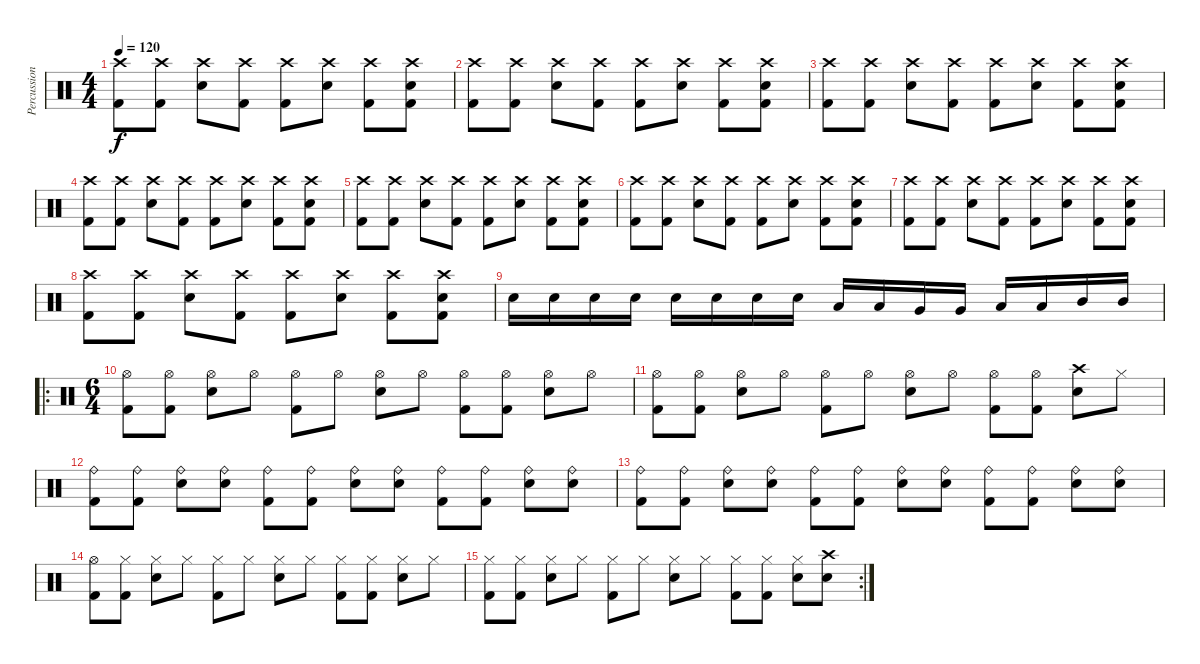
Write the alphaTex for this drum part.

\track ("Percussion" "Percussion") {instrument percussion}
\staff {score}
\articulation defaults
\ts (4 4)
\tempo 120
\clef neutral
\ks c
("Crash high (hit)" "Kick (hit) 2").8{dy f} ("Crash high (hit)" "Kick (hit) 2").8 ("Crash high (hit)" "Electric Snare (hit)").8 ("Crash high (hit)" "Kick (hit) 2").8 ("Crash high (hit)" "Kick (hit) 2").8 ("Crash high (hit)" "Electric Snare (hit)").8 ("Crash high (hit)" "Kick (hit) 2").8 ("Crash high (hit)" "Electric Snare (hit)" "Kick (hit) 2").8 |
("Crash high (hit)" "Kick (hit) 2").8 ("Crash high (hit)" "Kick (hit) 2").8 ("Crash high (hit)" "Electric Snare (hit)").8 ("Crash high (hit)" "Kick (hit) 2").8 ("Crash high (hit)" "Kick (hit) 2").8 ("Crash high (hit)" "Electric Snare (hit)").8 ("Crash high (hit)" "Kick (hit) 2").8 ("Crash high (hit)" "Electric Snare (hit)" "Kick (hit) 2").8 |
("Crash high (hit)" "Kick (hit) 2").8 ("Crash high (hit)" "Kick (hit) 2").8 ("Crash high (hit)" "Electric Snare (hit)").8 ("Crash high (hit)" "Kick (hit) 2").8 ("Crash high (hit)" "Kick (hit) 2").8 ("Crash high (hit)" "Electric Snare (hit)").8 ("Crash high (hit)" "Kick (hit) 2").8 ("Crash high (hit)" "Electric Snare (hit)" "Kick (hit) 2").8 |
("Crash high (hit)" "Kick (hit) 2").8 ("Crash high (hit)" "Kick (hit) 2").8 ("Crash high (hit)" "Electric Snare (hit)").8 ("Crash high (hit)" "Kick (hit) 2").8 ("Crash high (hit)" "Kick (hit) 2").8 ("Crash high (hit)" "Electric Snare (hit)").8 ("Crash high (hit)" "Kick (hit) 2").8 ("Crash high (hit)" "Electric Snare (hit)" "Kick (hit) 2").8 |
("Crash high (hit)" "Kick (hit) 2").8 ("Crash high (hit)" "Kick (hit) 2").8 ("Crash high (hit)" "Electric Snare (hit)").8 ("Crash high (hit)" "Kick (hit) 2").8 ("Crash high (hit)" "Kick (hit) 2").8 ("Crash high (hit)" "Electric Snare (hit)").8 ("Crash high (hit)" "Kick (hit) 2").8 ("Crash high (hit)" "Electric Snare (hit)" "Kick (hit) 2").8 |
("Crash high (hit)" "Kick (hit) 2").8 ("Crash high (hit)" "Kick (hit) 2").8 ("Crash high (hit)" "Electric Snare (hit)").8 ("Crash high (hit)" "Kick (hit) 2").8 ("Crash high (hit)" "Kick (hit) 2").8 ("Crash high (hit)" "Electric Snare (hit)").8 ("Crash high (hit)" "Kick (hit) 2").8 ("Crash high (hit)" "Electric Snare (hit)" "Kick (hit) 2").8 |
("Crash high (hit)" "Kick (hit) 2").8 ("Crash high (hit)" "Kick (hit) 2").8 ("Crash high (hit)" "Electric Snare (hit)").8 ("Crash high (hit)" "Kick (hit) 2").8 ("Crash high (hit)" "Kick (hit) 2").8 ("Crash high (hit)" "Electric Snare (hit)").8 ("Crash high (hit)" "Kick (hit) 2").8 ("Crash high (hit)" "Electric Snare (hit)" "Kick (hit) 2").8 |
("Crash high (hit)" "Kick (hit) 2").8 ("Crash high (hit)" "Kick (hit) 2").8 ("Crash high (hit)" "Electric Snare (hit)").8 ("Crash high (hit)" "Kick (hit) 2").8 ("Crash high (hit)" "Kick (hit) 2").8 ("Crash high (hit)" "Electric Snare (hit)").8 ("Crash high (hit)" "Kick (hit) 2").8 ("Crash high (hit)" "Electric Snare (hit)" "Kick (hit) 2").8 |
"Snare (hit) 2".16 "Electric Snare (hit)".16 "Snare (hit) 2".16 "Electric Snare (hit)".16 "Snare (hit) 2".16 "Electric Snare (hit)".16 "Snare (hit) 2".16 "Electric Snare (hit)".16 "Low Floor Tom (hit)".16 "Low Floor Tom (hit)".16 "Very Low Tom (hit)".16 "Very Low Tom (hit)".16 "Low Tom (hit)".16 "Low Tom (hit)".16 "Mid Tom (hit)".16 "Mid Tom (hit)".16 |
\ro
\ts (6 4)
("Hi-Hat (open)" "Kick (hit) 2").8 ("Hi-Hat (open)" "Kick (hit) 2").8 ("Hi-Hat (open)" "Electric Snare (hit)").8 "Hi-Hat (open)".8 ("Hi-Hat (open)" "Kick (hit) 2").8 "Hi-Hat (open)".8 ("Hi-Hat (open)" "Electric Snare (hit)").8 "Hi-Hat (open)".8 ("Hi-Hat (open)" "Kick (hit) 2").8 ("Hi-Hat (open)" "Kick (hit) 2").8 ("Hi-Hat (open)" "Electric Snare (hit)").8 "Hi-Hat (open)".8 |
("Hi-Hat (open)" "Kick (hit) 2").8 ("Hi-Hat (open)" "Kick (hit) 2").8 ("Hi-Hat (open)" "Electric Snare (hit)").8 "Hi-Hat (open)".8 ("Hi-Hat (open)" "Kick (hit) 2").8 "Hi-Hat (open)".8 ("Hi-Hat (open)" "Electric Snare (hit)").8 "Hi-Hat (open)".8 ("Hi-Hat (open)" "Kick (hit) 2").8 ("Hi-Hat (open)" "Kick (hit) 2").8 ("Crash high (hit)" "Electric Snare (hit)").8 "Hi-Hat (closed)".8 |
("Ride (bell)" "Kick (hit) 2").8 ("Ride (bell)" "Kick (hit) 2").8 ("Ride (bell)" "Electric Snare (hit)").8 ("Ride (bell)" "Electric Snare (hit)").8 ("Ride (bell)" "Kick (hit) 2").8 ("Ride (bell)" "Kick (hit) 2").8 ("Ride (bell)" "Electric Snare (hit)").8 ("Ride (bell)" "Electric Snare (hit)").8 ("Ride (bell)" "Kick (hit) 2").8 ("Ride (bell)" "Kick (hit) 2").8 ("Ride (bell)" "Electric Snare (hit)").8 ("Ride (bell)" "Electric Snare (hit)").8 |
("Ride (bell)" "Kick (hit) 2").8 ("Ride (bell)" "Kick (hit) 2").8 ("Ride (bell)" "Electric Snare (hit)").8 ("Ride (bell)" "Electric Snare (hit)").8 ("Ride (bell)" "Kick (hit) 2").8 ("Ride (bell)" "Kick (hit) 2").8 ("Ride (bell)" "Electric Snare (hit)").8 ("Ride (bell)" "Electric Snare (hit)").8 ("Ride (bell)" "Kick (hit) 2").8 ("Ride (bell)" "Kick (hit) 2").8 ("Ride (bell)" "Electric Snare (hit)").8 ("Ride (bell)" "Electric Snare (hit)").8 |
("Hi-Hat (open)" "Kick (hit) 2").8 ("Hi-Hat (closed)" "Kick (hit) 2").8 ("Hi-Hat (closed)" "Electric Snare (hit)").8 "Hi-Hat (closed)".8 ("Hi-Hat (closed)" "Kick (hit) 2").8 "Hi-Hat (closed)".8 ("Hi-Hat (closed)" "Electric Snare (hit)").8 "Hi-Hat (closed)".8 ("Hi-Hat (closed)" "Kick (hit) 2").8 ("Hi-Hat (closed)" "Kick (hit) 2").8 ("Hi-Hat (closed)" "Electric Snare (hit)").8 "Hi-Hat (closed)".8 |
\rc 2
("Hi-Hat (closed)" "Kick (hit) 2").8 ("Hi-Hat (closed)" "Kick (hit) 2").8 ("Hi-Hat (closed)" "Electric Snare (hit)").8 "Hi-Hat (closed)".8 ("Hi-Hat (closed)" "Kick (hit) 2").8 "Hi-Hat (closed)".8 ("Hi-Hat (closed)" "Electric Snare (hit)").8 "Hi-Hat (closed)".8 ("Hi-Hat (closed)" "Kick (hit) 2").8 ("Hi-Hat (closed)" "Kick (hit) 2").8 ("Hi-Hat (closed)" "Electric Snare (hit)").8 ("Crash high (hit)" "Electric Snare (hit)").8
